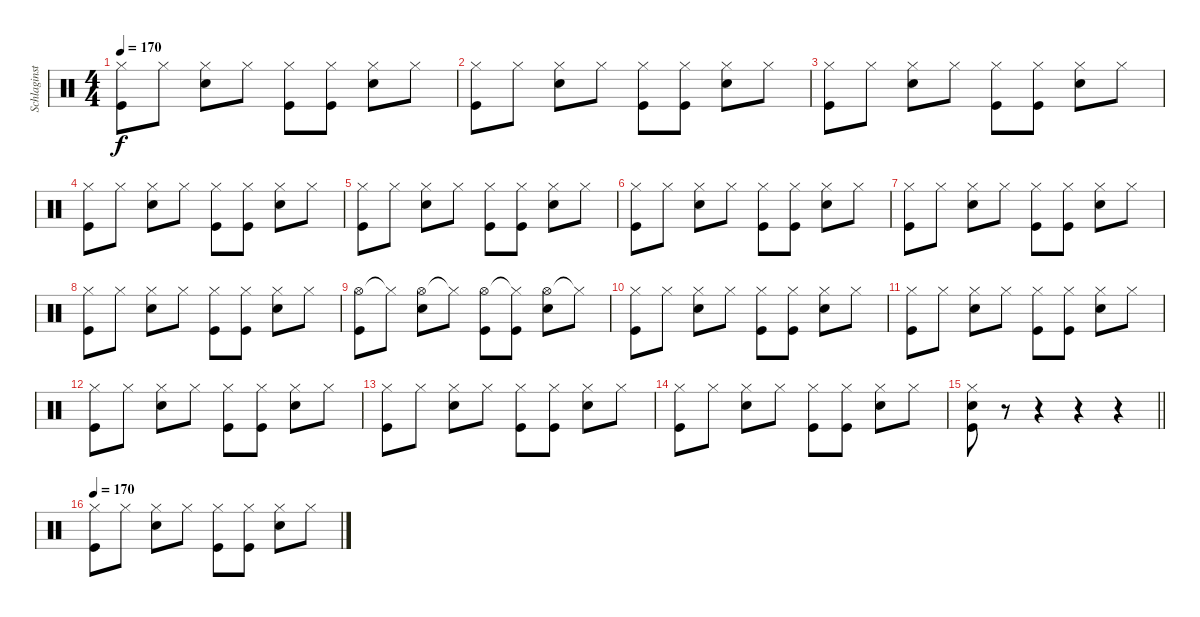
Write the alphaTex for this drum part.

\track ("Schlaginstrumente - Auswahl" "Schlaginst") {instrument percussion}
\staff {score}
\articulation defaults
\ts (4 4)
\tempo 170
\clef neutral
\ks c
("Hi-Hat (closed)" "Kick (hit)").8{dy f} "Hi-Hat (closed)".8 ("Hi-Hat (closed)" "Electric Snare (hit)").8 "Hi-Hat (closed)".8 ("Hi-Hat (closed)" "Kick (hit)").8 ("Hi-Hat (closed)" "Kick (hit)").8 ("Hi-Hat (closed)" "Electric Snare (hit)").8 "Hi-Hat (closed)".8 |
("Hi-Hat (closed)" "Kick (hit)").8 "Hi-Hat (closed)".8 ("Hi-Hat (closed)" "Electric Snare (hit)").8 "Hi-Hat (closed)".8 ("Hi-Hat (closed)" "Kick (hit)").8 ("Hi-Hat (closed)" "Kick (hit)").8 ("Hi-Hat (closed)" "Electric Snare (hit)").8 "Hi-Hat (closed)".8 |
("Hi-Hat (closed)" "Kick (hit)").8 "Hi-Hat (closed)".8 ("Hi-Hat (closed)" "Electric Snare (hit)").8 "Hi-Hat (closed)".8 ("Hi-Hat (closed)" "Kick (hit)").8 ("Hi-Hat (closed)" "Kick (hit)").8 ("Hi-Hat (closed)" "Electric Snare (hit)").8 "Hi-Hat (closed)".8 |
("Hi-Hat (closed)" "Kick (hit)").8 "Hi-Hat (closed)".8 ("Hi-Hat (closed)" "Electric Snare (hit)").8 "Hi-Hat (closed)".8 ("Hi-Hat (closed)" "Kick (hit)").8 ("Hi-Hat (closed)" "Kick (hit)").8 ("Hi-Hat (closed)" "Electric Snare (hit)").8 "Hi-Hat (closed)".8 |
("Hi-Hat (closed)" "Kick (hit)").8 "Hi-Hat (closed)".8 ("Hi-Hat (closed)" "Electric Snare (hit)").8 "Hi-Hat (closed)".8 ("Hi-Hat (closed)" "Kick (hit)").8 ("Hi-Hat (closed)" "Kick (hit)").8 ("Hi-Hat (closed)" "Electric Snare (hit)").8 "Hi-Hat (closed)".8 |
("Hi-Hat (closed)" "Kick (hit)").8 "Hi-Hat (closed)".8 ("Hi-Hat (closed)" "Electric Snare (hit)").8 "Hi-Hat (closed)".8 ("Hi-Hat (closed)" "Kick (hit)").8 ("Hi-Hat (closed)" "Kick (hit)").8 ("Hi-Hat (closed)" "Electric Snare (hit)").8 "Hi-Hat (closed)".8 |
("Hi-Hat (closed)" "Kick (hit)").8 "Hi-Hat (closed)".8 ("Hi-Hat (closed)" "Electric Snare (hit)").8 "Hi-Hat (closed)".8 ("Hi-Hat (closed)" "Kick (hit)").8 ("Hi-Hat (closed)" "Kick (hit)").8 ("Hi-Hat (closed)" "Electric Snare (hit)").8 "Hi-Hat (closed)".8 |
("Hi-Hat (closed)" "Kick (hit)").8 "Hi-Hat (closed)".8 ("Hi-Hat (closed)" "Electric Snare (hit)").8 "Hi-Hat (closed)".8 ("Hi-Hat (closed)" "Kick (hit)").8 ("Hi-Hat (closed)" "Kick (hit)").8 ("Hi-Hat (closed)" "Electric Snare (hit)").8 "Hi-Hat (closed)".8 |
("Hi-Hat (open)" "Kick (hit)").8 "Hi-Hat (closed)"{t}.8 ("Hi-Hat (open)" "Electric Snare (hit)").8 "Hi-Hat (closed)"{t}.8 ("Hi-Hat (open)" "Kick (hit)").8 ("Hi-Hat (closed)"{t} "Kick (hit)").8 ("Hi-Hat (open)" "Electric Snare (hit)").8 "Hi-Hat (closed)"{t}.8 |
("Hi-Hat (closed)" "Kick (hit)").8 "Hi-Hat (closed)".8 ("Hi-Hat (closed)" "Electric Snare (hit)").8 "Hi-Hat (closed)".8 ("Hi-Hat (closed)" "Kick (hit)").8 ("Hi-Hat (closed)" "Kick (hit)").8 ("Hi-Hat (closed)" "Electric Snare (hit)").8 "Hi-Hat (closed)".8 |
("Hi-Hat (closed)" "Kick (hit)").8 "Hi-Hat (closed)".8 ("Hi-Hat (closed)" "Electric Snare (hit)").8 "Hi-Hat (closed)".8 ("Hi-Hat (closed)" "Kick (hit)").8 ("Hi-Hat (closed)" "Kick (hit)").8 ("Hi-Hat (closed)" "Electric Snare (hit)").8 "Hi-Hat (closed)".8 |
("Hi-Hat (closed)" "Kick (hit)").8 "Hi-Hat (closed)".8 ("Hi-Hat (closed)" "Electric Snare (hit)").8 "Hi-Hat (closed)".8 ("Hi-Hat (closed)" "Kick (hit)").8 ("Hi-Hat (closed)" "Kick (hit)").8 ("Hi-Hat (closed)" "Electric Snare (hit)").8 "Hi-Hat (closed)".8 |
("Hi-Hat (closed)" "Kick (hit)").8 "Hi-Hat (closed)".8 ("Hi-Hat (closed)" "Electric Snare (hit)").8 "Hi-Hat (closed)".8 ("Hi-Hat (closed)" "Kick (hit)").8 ("Hi-Hat (closed)" "Kick (hit)").8 ("Hi-Hat (closed)" "Electric Snare (hit)").8 "Hi-Hat (closed)".8 |
("Hi-Hat (closed)" "Kick (hit)").8 "Hi-Hat (closed)".8 ("Hi-Hat (closed)" "Electric Snare (hit)").8 "Hi-Hat (closed)".8 ("Hi-Hat (closed)" "Kick (hit)").8 ("Hi-Hat (closed)" "Kick (hit)").8 ("Hi-Hat (closed)" "Electric Snare (hit)").8 "Hi-Hat (closed)".8 |
\barLineRight lightlight
("Hi-Hat (closed)" "Electric Snare (hit)" "Kick (hit)").8 r.8 r.4 r.4 r.4 |
\tempo 170
("Hi-Hat (closed)" "Kick (hit)").8 "Hi-Hat (closed)".8 ("Hi-Hat (closed)" "Electric Snare (hit)").8 "Hi-Hat (closed)".8 ("Hi-Hat (closed)" "Kick (hit)").8 ("Hi-Hat (closed)" "Kick (hit)").8 ("Hi-Hat (closed)" "Electric Snare (hit)").8 "Hi-Hat (closed)".8
